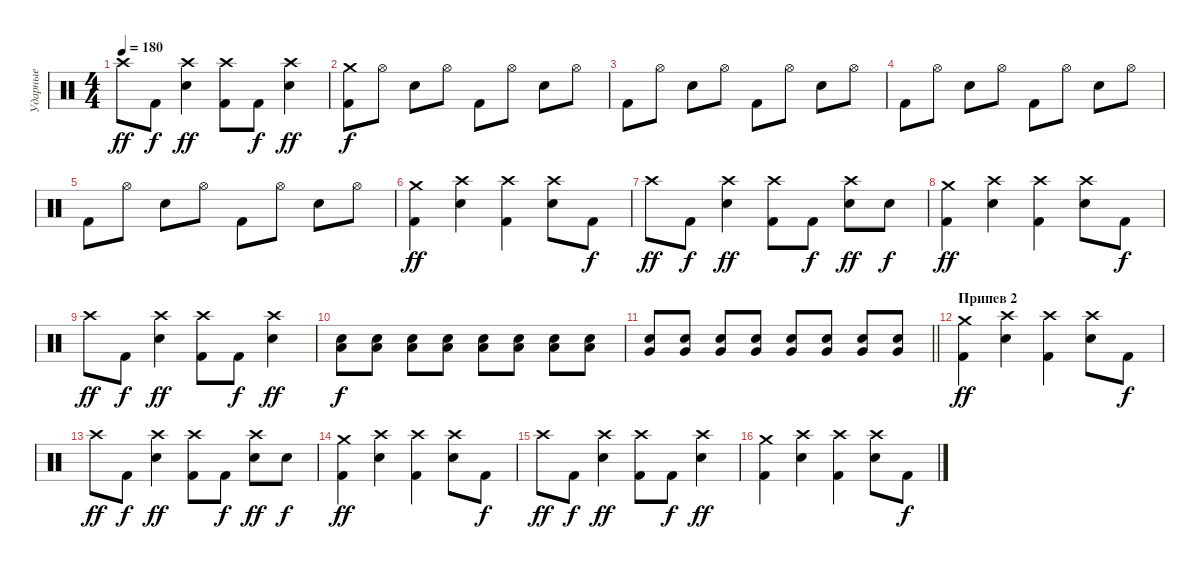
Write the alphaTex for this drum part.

\track ("Ударные" "Ударные") {instrument percussion}
\staff {score}
\articulation defaults
\ts (4 4)
\tempo 180
\clef neutral
\ks c "Crash high (hit)".8{dy ff} "Kick (hit) 2".8{dy f}
("Crash high (hit)" "Snare (hit) 2").4{dy ff} ("Crash high (hit)" "Kick (hit) 2").8 "Kick (hit) 2".8{dy f} ("Crash high (hit)" "Snare (hit) 2").4{dy ff} |
("Crash medium (hit)" "Kick (hit) 2").8{dy f} "Hi-Hat (open)".8 "Snare (hit) 2".8 "Hi-Hat (open)".8 "Kick (hit) 2".8 "Hi-Hat (open)".8 "Snare (hit) 2".8 "Hi-Hat (open)".8 |
"Kick (hit) 2".8 "Hi-Hat (open)".8 "Snare (hit) 2".8 "Hi-Hat (open)".8 "Kick (hit) 2".8 "Hi-Hat (open)".8 "Snare (hit) 2".8 "Hi-Hat (open)".8 |
"Kick (hit) 2".8 "Hi-Hat (open)".8 "Snare (hit) 2".8 "Hi-Hat (open)".8 "Kick (hit) 2".8 "Hi-Hat (open)".8 "Snare (hit) 2".8 "Hi-Hat (open)".8 |
"Kick (hit) 2".8 "Hi-Hat (open)".8 "Snare (hit) 2".8 "Hi-Hat (open)".8 "Kick (hit) 2".8 "Hi-Hat (open)".8 "Snare (hit) 2".8 "Hi-Hat (open)".8 |
("Crash medium (hit)" "Kick (hit) 2").4{dy ff} ("Crash high (hit)" "Snare (hit) 2").4 ("Crash high (hit)" "Kick (hit) 2").4 ("Crash high (hit)" "Snare (hit) 2").8 "Kick (hit) 2".8{dy f} |
"Crash high (hit)".8{dy ff} "Kick (hit) 2".8{dy f} ("Crash high (hit)" "Snare (hit) 2").4{dy ff} ("Crash high (hit)" "Kick (hit) 2").8 "Kick (hit) 2".8{dy f} ("Crash high (hit)" "Snare (hit) 2").8{dy ff} "Snare (hit) 2".8{dy f} |
("Crash medium (hit)" "Kick (hit) 2").4{dy ff} ("Crash high (hit)" "Snare (hit) 2").4 ("Crash high (hit)" "Kick (hit) 2").4 ("Crash high (hit)" "Snare (hit) 2").8 "Kick (hit) 2".8{dy f} |
"Crash high (hit)".8{dy ff} "Kick (hit) 2".8{dy f} ("Crash high (hit)" "Snare (hit) 2").4{dy ff} ("Crash high (hit)" "Kick (hit) 2").8 "Kick (hit) 2".8{dy f} ("Crash high (hit)" "Snare (hit) 2").4{dy ff} |
("Low Tom (hit)" "Snare (hit) 2").8{dy f} ("Low Tom (hit)" "Snare (hit) 2").8 ("Low Tom (hit)" "Snare (hit) 2").8 ("Low Tom (hit)" "Snare (hit) 2").8 ("Low Tom (hit)" "Snare (hit) 2").8 ("Low Tom (hit)" "Snare (hit) 2").8 ("Low Tom (hit)" "Snare (hit) 2").8 ("Low Tom (hit)" "Snare (hit) 2").8 |
\barLineRight lightlight
("Snare (hit) 2" "Very Low Tom (hit)").8 ("Snare (hit) 2" "Very Low Tom (hit)").8 ("Snare (hit) 2" "Very Low Tom (hit)").8 ("Snare (hit) 2" "Very Low Tom (hit)").8 ("Snare (hit) 2" "Very Low Tom (hit)").8 ("Snare (hit) 2" "Very Low Tom (hit)").8 ("Snare (hit) 2" "Very Low Tom (hit)").8 ("Snare (hit) 2" "Very Low Tom (hit)").8 |
\section ("" "Припев 2")
("Crash medium (hit)" "Kick (hit) 2").4{dy ff} ("Crash high (hit)" "Snare (hit) 2").4 ("Crash high (hit)" "Kick (hit) 2").4 ("Crash high (hit)" "Snare (hit) 2").8 "Kick (hit) 2".8{dy f} |
"Crash high (hit)".8{dy ff} "Kick (hit) 2".8{dy f} ("Crash high (hit)" "Snare (hit) 2").4{dy ff} ("Crash high (hit)" "Kick (hit) 2").8 "Kick (hit) 2".8{dy f} ("Crash high (hit)" "Snare (hit) 2").8{dy ff} "Snare (hit) 2".8{dy f} |
("Crash medium (hit)" "Kick (hit) 2").4{dy ff} ("Crash high (hit)" "Snare (hit) 2").4 ("Crash high (hit)" "Kick (hit) 2").4 ("Crash high (hit)" "Snare (hit) 2").8 "Kick (hit) 2".8{dy f} |
"Crash high (hit)".8{dy ff} "Kick (hit) 2".8{dy f} ("Crash high (hit)" "Snare (hit) 2").4{dy ff} ("Crash high (hit)" "Kick (hit) 2").8 "Kick (hit) 2".8{dy f} ("Crash high (hit)" "Snare (hit) 2").4{dy ff} |
("Crash medium (hit)" "Kick (hit) 2").4 ("Crash high (hit)" "Snare (hit) 2").4 ("Crash high (hit)" "Kick (hit) 2").4 ("Crash high (hit)" "Snare (hit) 2").8 "Kick (hit) 2".8{dy f}
